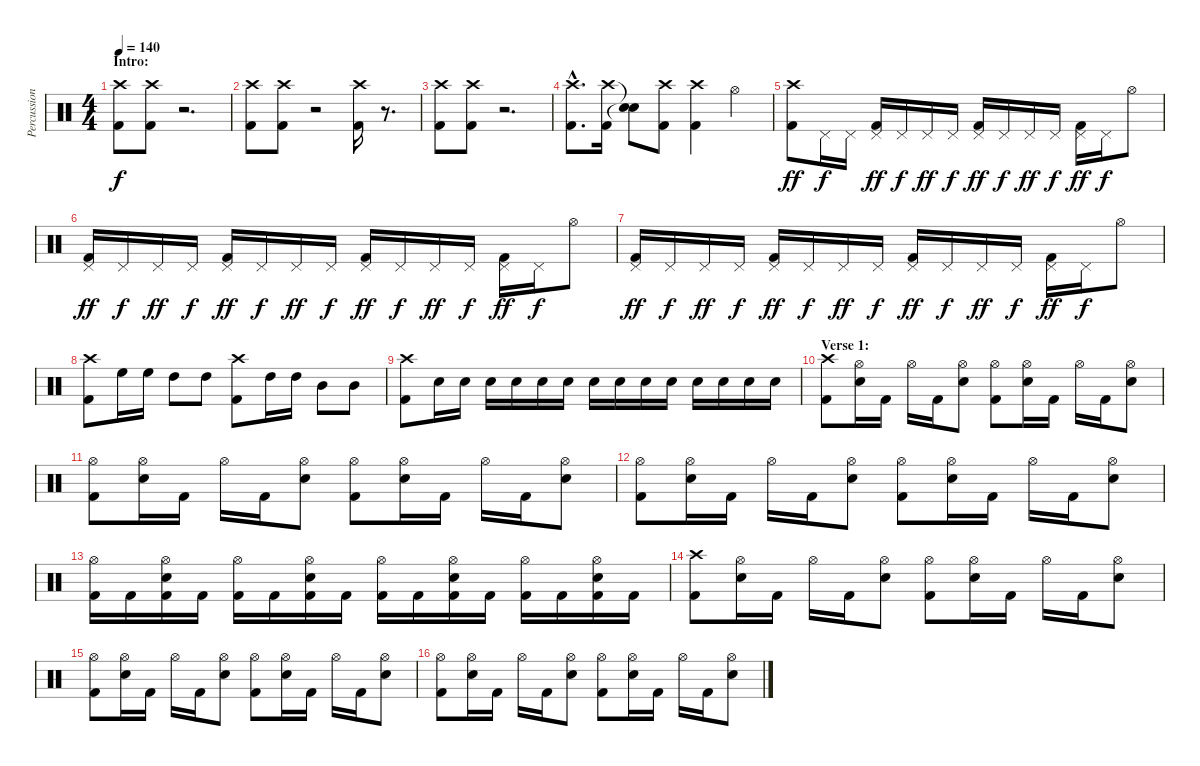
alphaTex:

\track ("Percussion" "Percussion") {instrument percussion}
\staff {score}
\articulation defaults
\ts (4 4)
\section ("" "Intro:")
\tempo 140
\clef neutral
\ks c
("Crash high (hit)" "Kick (hit) 2").8{dy f} ("Crash high (hit)" "Kick (hit) 2").8 r.2{d} |
("Crash high (hit)" "Kick (hit) 2").8 ("Crash high (hit)" "Kick (hit) 2").8 r.2 ("Crash high (hit)" "Kick (hit) 2").16 r.8{d} |
("Crash high (hit)" "Kick (hit) 2").8 ("Crash high (hit)" "Kick (hit) 2").8 r.2{d} |
("Crash high (hit)"{hac} "Kick (hit) 2"{hac}).8{d} ("Crash high (hit)" "Kick (hit) 2").16 ("Snare (hit)"{t} "Snare (hit)"{t}).8 ("Crash high (hit)" "Kick (hit) 2").8 ("Crash high (hit)" "Kick (hit) 2").4 "Hi-Hat (open)".4 |
("Crash high (hit)" "Kick (hit) 2").8{dy ff} "Pedal Hi-Hat (hit)".16{dy f} "Pedal Hi-Hat (hit)".16 ("Pedal Hi-Hat (hit)" "Kick (hit) 2").16{dy ff} "Pedal Hi-Hat (hit)".16{dy f} "Pedal Hi-Hat (hit)".16{dy ff} "Pedal Hi-Hat (hit)".16{dy f} ("Pedal Hi-Hat (hit)" "Kick (hit) 2").16{dy ff} "Pedal Hi-Hat (hit)".16{dy f} "Pedal Hi-Hat (hit)".16{dy ff} "Pedal Hi-Hat (hit)".16{dy f} ("Pedal Hi-Hat (hit)" "Kick (hit) 2").16{dy ff} "Pedal Hi-Hat (hit)".16{dy f} "Hi-Hat (open)".8 |
("Pedal Hi-Hat (hit)" "Kick (hit) 2").16{dy ff} "Pedal Hi-Hat (hit)".16{dy f} "Pedal Hi-Hat (hit)".16{dy ff} "Pedal Hi-Hat (hit)".16{dy f} ("Pedal Hi-Hat (hit)" "Kick (hit) 2").16{dy ff} "Pedal Hi-Hat (hit)".16{dy f} "Pedal Hi-Hat (hit)".16{dy ff} "Pedal Hi-Hat (hit)".16{dy f} ("Pedal Hi-Hat (hit)" "Kick (hit) 2").16{dy ff} "Pedal Hi-Hat (hit)".16{dy f} "Pedal Hi-Hat (hit)".16{dy ff} "Pedal Hi-Hat (hit)".16{dy f} ("Pedal Hi-Hat (hit)" "Kick (hit) 2").16{dy ff} "Pedal Hi-Hat (hit)".16{dy f} "Hi-Hat (open)".8 |
("Pedal Hi-Hat (hit)" "Kick (hit) 2").16{dy ff} "Pedal Hi-Hat (hit)".16{dy f} "Pedal Hi-Hat (hit)".16{dy ff} "Pedal Hi-Hat (hit)".16{dy f} ("Pedal Hi-Hat (hit)" "Kick (hit) 2").16{dy ff} "Pedal Hi-Hat (hit)".16{dy f} "Pedal Hi-Hat (hit)".16{dy ff} "Pedal Hi-Hat (hit)".16{dy f} ("Pedal Hi-Hat (hit)" "Kick (hit) 2").16{dy ff} "Pedal Hi-Hat (hit)".16{dy f} "Pedal Hi-Hat (hit)".16{dy ff} "Pedal Hi-Hat (hit)".16{dy f} ("Pedal Hi-Hat (hit)" "Kick (hit) 2").16{dy ff} "Pedal Hi-Hat (hit)".16{dy f} "Hi-Hat (open)".8 |
("Crash high (hit)" "Kick (hit) 2").8 "High Floor Tom (hit)".16 "High Floor Tom (hit)".16 "High Tom (hit)".8 "High Tom (hit)".8 ("Crash high (hit)" "Kick (hit) 2").8 "High Tom (hit)".16 "High Tom (hit)".16 "Mid Tom (hit)".8 "Mid Tom (hit)".8 |
("Crash high (hit)" "Kick (hit) 2").8 "Electric Snare (hit)".16 "Electric Snare (hit)".16 "Electric Snare (hit)".16 "Electric Snare (hit)".16 "Electric Snare (hit)".16 "Electric Snare (hit)".16 "Electric Snare (hit)".16 "Electric Snare (hit)".16 "Electric Snare (hit)".16 "Electric Snare (hit)".16 "Electric Snare (hit)".16 "Electric Snare (hit)".16 "Electric Snare (hit)".16 "Electric Snare (hit)".16 |
\section ("" "Verse 1:")
("Crash high (hit)" "Kick (hit) 2").8 ("Hi-Hat (open)" "Electric Snare (hit)").16 "Kick (hit) 2".16 "Hi-Hat (open)".16 "Kick (hit) 2".16 ("Hi-Hat (open)" "Electric Snare (hit)").8 ("Hi-Hat (open)" "Kick (hit) 2").8 ("Hi-Hat (open)" "Electric Snare (hit)").16 "Kick (hit) 2".16 "Hi-Hat (open)".16 "Kick (hit) 2".16 ("Hi-Hat (open)" "Electric Snare (hit)").8 |
("Hi-Hat (open)" "Kick (hit) 2").8 ("Hi-Hat (open)" "Electric Snare (hit)").16 "Kick (hit) 2".16 "Hi-Hat (open)".16 "Kick (hit) 2".16 ("Hi-Hat (open)" "Electric Snare (hit)").8 ("Hi-Hat (open)" "Kick (hit) 2").8 ("Hi-Hat (open)" "Electric Snare (hit)").16 "Kick (hit) 2".16 "Hi-Hat (open)".16 "Kick (hit) 2".16 ("Hi-Hat (open)" "Electric Snare (hit)").8 |
("Hi-Hat (open)" "Kick (hit) 2").8 ("Hi-Hat (open)" "Electric Snare (hit)").16 "Kick (hit) 2".16 "Hi-Hat (open)".16 "Kick (hit) 2".16 ("Hi-Hat (open)" "Electric Snare (hit)").8 ("Hi-Hat (open)" "Kick (hit) 2").8 ("Hi-Hat (open)" "Electric Snare (hit)").16 "Kick (hit) 2".16 "Hi-Hat (open)".16 "Kick (hit) 2".16 ("Hi-Hat (open)" "Electric Snare (hit)").8 |
("Hi-Hat (open)" "Kick (hit) 2").16 "Kick (hit) 2".16 ("Hi-Hat (open)" "Electric Snare (hit)" "Kick (hit) 2").16 "Kick (hit) 2".16 ("Hi-Hat (open)" "Kick (hit) 2").16 "Kick (hit) 2".16 ("Hi-Hat (open)" "Electric Snare (hit)" "Kick (hit) 2").16 "Kick (hit) 2".16 ("Hi-Hat (open)" "Kick (hit) 2").16 "Kick (hit) 2".16 ("Hi-Hat (open)" "Electric Snare (hit)" "Kick (hit) 2").16 "Kick (hit) 2".16 ("Hi-Hat (open)" "Kick (hit) 2").16 "Kick (hit) 2".16 ("Hi-Hat (open)" "Electric Snare (hit)" "Kick (hit) 2").16 "Kick (hit) 2".16 |
("Crash high (hit)" "Kick (hit) 2").8 ("Hi-Hat (open)" "Electric Snare (hit)").16 "Kick (hit) 2".16 "Hi-Hat (open)".16 "Kick (hit) 2".16 ("Hi-Hat (open)" "Electric Snare (hit)").8 ("Hi-Hat (open)" "Kick (hit) 2").8 ("Hi-Hat (open)" "Electric Snare (hit)").16 "Kick (hit) 2".16 "Hi-Hat (open)".16 "Kick (hit) 2".16 ("Hi-Hat (open)" "Electric Snare (hit)").8 |
("Hi-Hat (open)" "Kick (hit) 2").8 ("Hi-Hat (open)" "Electric Snare (hit)").16 "Kick (hit) 2".16 "Hi-Hat (open)".16 "Kick (hit) 2".16 ("Hi-Hat (open)" "Electric Snare (hit)").8 ("Hi-Hat (open)" "Kick (hit) 2").8 ("Hi-Hat (open)" "Electric Snare (hit)").16 "Kick (hit) 2".16 "Hi-Hat (open)".16 "Kick (hit) 2".16 ("Hi-Hat (open)" "Electric Snare (hit)").8 |
("Hi-Hat (open)" "Kick (hit) 2").8 ("Hi-Hat (open)" "Electric Snare (hit)").16 "Kick (hit) 2".16 "Hi-Hat (open)".16 "Kick (hit) 2".16 ("Hi-Hat (open)" "Electric Snare (hit)").8 ("Hi-Hat (open)" "Kick (hit) 2").8 ("Hi-Hat (open)" "Electric Snare (hit)").16 "Kick (hit) 2".16 "Hi-Hat (open)".16 "Kick (hit) 2".16 ("Hi-Hat (open)" "Electric Snare (hit)").8
